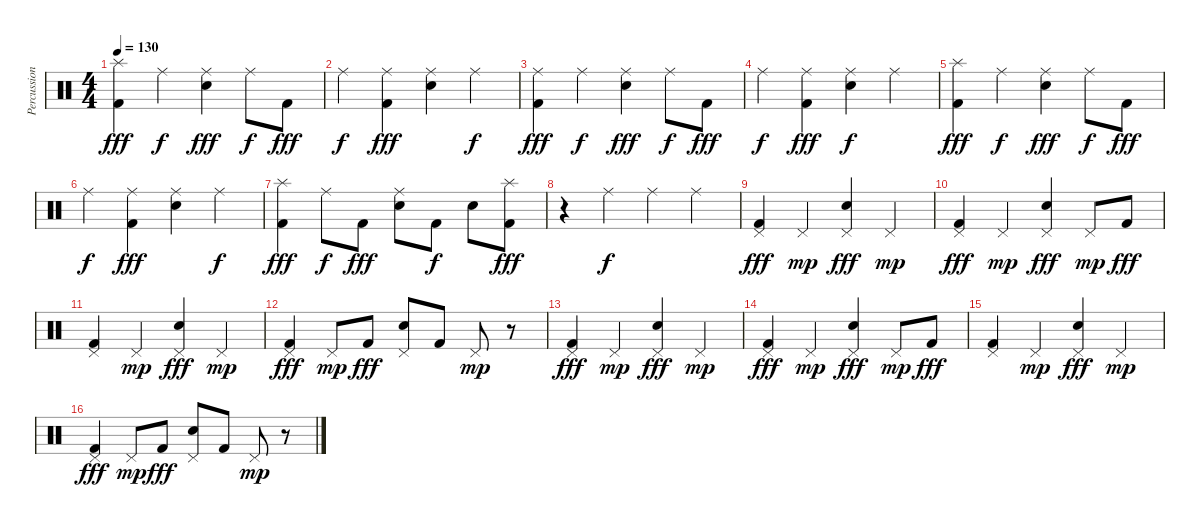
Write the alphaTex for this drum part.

\track ("Percussion" "Percussion") {instrument percussion}
\staff
\articulation defaults
\ts (4 4)
\tempo 130
\clef neutral
\ks c
("Splash (hit)" "Kick (hit) 2").4{dy fff} "Ride (middle)".4{dy f} ("Ride (middle)" "Electric Snare (hit)").4{dy fff} "Ride (middle)".8{dy f} "Kick (hit) 2".8{dy fff} |
"Ride (middle)".4{dy f} ("Ride (middle)" "Kick (hit) 2").4{dy fff} ("Ride (middle)" "Electric Snare (hit)").4 "Ride (middle)".4{dy f} |
("Ride (middle)" "Kick (hit) 2").4{dy fff} "Ride (middle)".4{dy f} ("Ride (middle)" "Electric Snare (hit)").4{dy fff} "Ride (middle)".8{dy f} "Kick (hit) 2".8{dy fff} |
"Ride (middle)".4{dy f} ("Ride (middle)" "Kick (hit) 2").4{dy fff} ("Ride (middle)" "Electric Snare (hit)").4{dy f} "Ride (middle)".4 |
("Splash (hit)" "Kick (hit) 2").4{dy fff} "Ride (middle)".4{dy f} ("Ride (middle)" "Electric Snare (hit)").4{dy fff} "Ride (middle)".8{dy f} "Kick (hit) 2".8{dy fff} |
"Ride (middle)".4{dy f} ("Ride (middle)" "Kick (hit) 2").4{dy fff} ("Ride (middle)" "Electric Snare (hit)").4 "Ride (middle)".4{dy f} |
("Splash (hit)" "Kick (hit) 2").4{dy fff} "Ride (middle)".8{dy f} "Kick (hit) 2".8{dy fff} ("Ride (middle)" "Electric Snare (hit)").8 "Kick (hit) 2".8{dy f} "Electric Snare (hit)".8 ("Splash (hit)" "Kick (hit) 2").8{dy fff} |
r.4 "Ride (middle)".4{dy f} "Ride (middle)".4 "Ride (middle)".4 |
("Pedal Hi-Hat (hit)" "Kick (hit) 2").4{dy fff} "Pedal Hi-Hat (hit)".4{dy mp} ("Pedal Hi-Hat (hit)" "Electric Snare (hit)").4{dy fff} "Pedal Hi-Hat (hit)".4{dy mp} |
("Pedal Hi-Hat (hit)" "Kick (hit) 2").4{dy fff} "Pedal Hi-Hat (hit)".4{dy mp} ("Pedal Hi-Hat (hit)" "Electric Snare (hit)").4{dy fff} "Pedal Hi-Hat (hit)".8{dy mp} "Kick (hit) 2".8{dy fff} |
("Pedal Hi-Hat (hit)" "Kick (hit) 2").4 "Pedal Hi-Hat (hit)".4{dy mp} ("Pedal Hi-Hat (hit)" "Electric Snare (hit)").4{dy fff} "Pedal Hi-Hat (hit)".4{dy mp} |
("Pedal Hi-Hat (hit)" "Kick (hit) 2").4{dy fff} "Pedal Hi-Hat (hit)".8{dy mp} "Kick (hit) 2".8{dy fff} ("Pedal Hi-Hat (hit)" "Electric Snare (hit)").8 "Kick (hit) 2".8 "Pedal Hi-Hat (hit)".8{dy mp} r.8 |
("Pedal Hi-Hat (hit)" "Kick (hit) 2").4{dy fff} "Pedal Hi-Hat (hit)".4{dy mp} ("Pedal Hi-Hat (hit)" "Electric Snare (hit)").4{dy fff} "Pedal Hi-Hat (hit)".4{dy mp} |
("Pedal Hi-Hat (hit)" "Kick (hit) 2").4{dy fff} "Pedal Hi-Hat (hit)".4{dy mp} ("Pedal Hi-Hat (hit)" "Electric Snare (hit)").4{dy fff} "Pedal Hi-Hat (hit)".8{dy mp} "Kick (hit) 2".8{dy fff} |
("Pedal Hi-Hat (hit)" "Kick (hit) 2").4 "Pedal Hi-Hat (hit)".4{dy mp} ("Pedal Hi-Hat (hit)" "Electric Snare (hit)").4{dy fff} "Pedal Hi-Hat (hit)".4{dy mp} |
("Pedal Hi-Hat (hit)" "Kick (hit) 2").4{dy fff} "Pedal Hi-Hat (hit)".8{dy mp} "Kick (hit) 2".8{dy fff} ("Pedal Hi-Hat (hit)" "Electric Snare (hit)").8 "Kick (hit) 2".8 "Pedal Hi-Hat (hit)".8{dy mp} r.8
